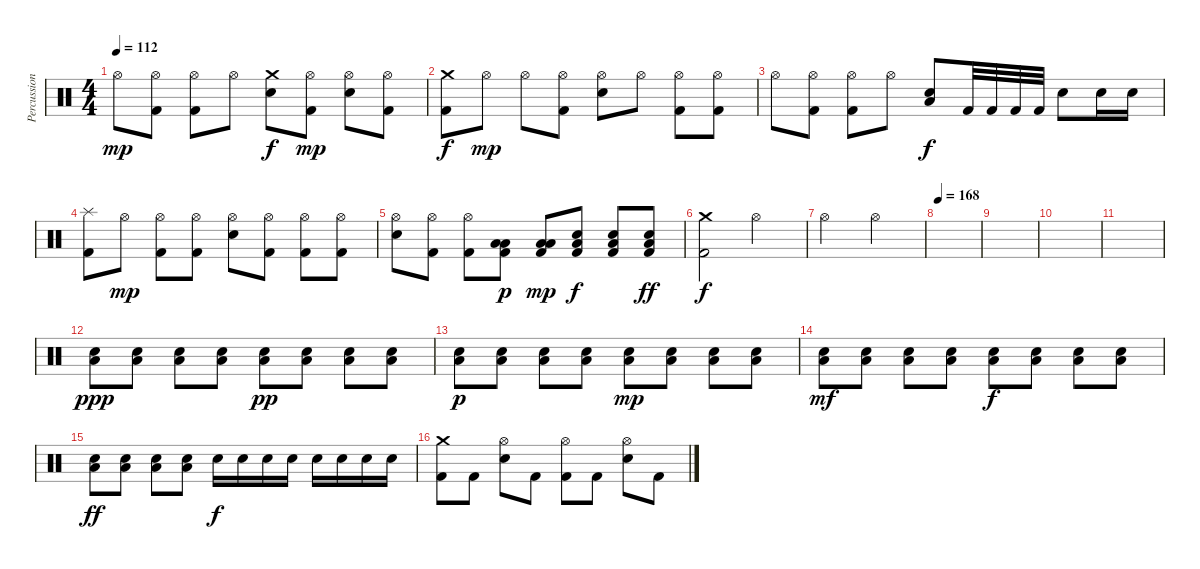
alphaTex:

\track ("Percussion" "Percussion") {instrument percussion}
\staff {score}
\articulation defaults
\ts (4 4)
\tempo 112
\clef neutral
\ks c "Hi-Hat (open)".8{dy mp}
("Hi-Hat (open)" "Kick (hit) 2").8 ("Hi-Hat (open)" "Kick (hit) 2").8 "Hi-Hat (open)".8 ("Crash medium (hit)" "Snare (hit) 2").8{dy f} ("Hi-Hat (open)" "Kick (hit) 2").8{dy mp} ("Hi-Hat (open)" "Snare (hit) 2").8 ("Hi-Hat (open)" "Kick (hit) 2").8 |
("Crash medium (hit)" "Kick (hit) 2").8{dy f} "Hi-Hat (open)".8{dy mp} "Hi-Hat (open)".8 ("Hi-Hat (open)" "Kick (hit) 2").8 ("Hi-Hat (open)" "Snare (hit) 2").8 "Hi-Hat (open)".8 ("Hi-Hat (open)" "Kick (hit) 2").8 ("Hi-Hat (open)" "Kick (hit) 2").8 |
"Hi-Hat (open)".8 ("Hi-Hat (open)" "Kick (hit) 2").8 ("Hi-Hat (open)" "Kick (hit) 2").8 "Hi-Hat (open)".8 ("Low Floor Tom (hit)" "Snare (hit) 2").8{dy f} "Kick (hit) 2".32 "Kick (hit) 2".32 "Kick (hit) 2".32 "Kick (hit) 2".32 "Snare (hit) 2".8 "Snare (hit) 2".16 "Snare (hit) 2".16 |
("Splash (hit)" "Kick (hit) 2").8 "Hi-Hat (open)".8{dy mp} ("Hi-Hat (open)" "Kick (hit) 2").8 ("Hi-Hat (open)" "Kick (hit) 2").8 ("Hi-Hat (open)" "Snare (hit) 2").8 ("Hi-Hat (open)" "Kick (hit) 2").8 ("Hi-Hat (open)" "Kick (hit) 2").8 ("Hi-Hat (open)" "Kick (hit) 2").8 |
("Hi-Hat (open)" "Snare (hit) 2").8 ("Hi-Hat (open)" "Kick (hit) 2").8 ("Hi-Hat (open)" "Kick (hit) 2").8 ("Low Floor Tom (hit)" "Low Floor Tom (hit)" "Kick (hit) 2").8{dy p} ("Low Floor Tom (hit)" "Low Floor Tom (hit)" "Kick (hit) 2").8{dy mp} ("Low Floor Tom (hit)" "Snare (hit) 2" "Kick (hit) 2").8{dy f} ("Low Floor Tom (hit)" "Snare (hit) 2" "Kick (hit) 2").8 ("Low Floor Tom (hit)" "Snare (hit) 2" "Kick (hit) 2").8{dy ff} |
("Crash medium (hit)" "Kick (hit) 2").2{dy f} "Hi-Hat (open)".2 |
"Hi-Hat (open)".2 "Hi-Hat (open)".2 |
\tempo 168
|
|
|
|
("Low Floor Tom (hit)" "Snare (hit) 2").8{dy ppp} ("Low Floor Tom (hit)" "Snare (hit) 2").8 ("Low Floor Tom (hit)" "Snare (hit) 2").8 ("Low Floor Tom (hit)" "Snare (hit) 2").8 ("Low Floor Tom (hit)" "Snare (hit) 2").8{dy pp} ("Low Floor Tom (hit)" "Snare (hit) 2").8 ("Low Floor Tom (hit)" "Snare (hit) 2").8 ("Low Floor Tom (hit)" "Snare (hit) 2").8 |
("Low Floor Tom (hit)" "Snare (hit) 2").8{dy p} ("Low Floor Tom (hit)" "Snare (hit) 2").8 ("Low Floor Tom (hit)" "Snare (hit) 2").8 ("Low Floor Tom (hit)" "Snare (hit) 2").8 ("Low Floor Tom (hit)" "Snare (hit) 2").8{dy mp} ("Low Floor Tom (hit)" "Snare (hit) 2").8 ("Low Floor Tom (hit)" "Snare (hit) 2").8 ("Low Floor Tom (hit)" "Snare (hit) 2").8 |
("Low Floor Tom (hit)" "Snare (hit) 2").8{dy mf} ("Low Floor Tom (hit)" "Snare (hit) 2").8 ("Low Floor Tom (hit)" "Snare (hit) 2").8 ("Low Floor Tom (hit)" "Snare (hit) 2").8 ("Low Floor Tom (hit)" "Snare (hit) 2").8{dy f} ("Low Floor Tom (hit)" "Snare (hit) 2").8 ("Low Floor Tom (hit)" "Snare (hit) 2").8 ("Low Floor Tom (hit)" "Snare (hit) 2").8 |
("Low Floor Tom (hit)" "Snare (hit) 2").8{dy ff} ("Low Floor Tom (hit)" "Snare (hit) 2").8 ("Low Floor Tom (hit)" "Snare (hit) 2").8 ("Low Floor Tom (hit)" "Snare (hit) 2").8 "Snare (hit) 2".16{dy f} "Snare (hit) 2".16 "Snare (hit) 2".16 "Snare (hit) 2".16 "Snare (hit) 2".16 "Snare (hit) 2".16 "Snare (hit) 2".16 "Snare (hit) 2".16 |
("Crash medium (hit)" "Kick (hit) 2").8 "Kick (hit) 2".8 ("Hi-Hat (open)" "Snare (hit) 2").8 "Kick (hit) 2".8 ("Hi-Hat (open)" "Kick (hit) 2").8 "Kick (hit) 2".8 ("Hi-Hat (open)" "Snare (hit) 2").8 "Kick (hit) 2".8
